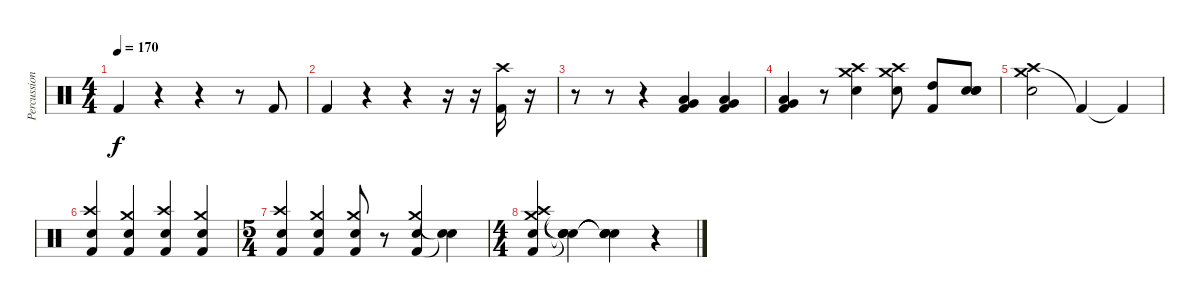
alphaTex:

\track ("Percussion" "Percussion") {instrument percussion}
\staff {score}
\articulation defaults
\ts (4 4)
\tempo 170
\clef neutral
\ks c "Kick (hit) 2".4{dy f}
r.4 r.4 r.8 "Kick (hit) 2".8 |
"Kick (hit) 2".4 r.4 r.4 r.16 r.16 ("Crash high (hit)" "Kick (hit) 2").16 r.16 |
r.8 r.8 r.4 ("Very Low Tom (hit)" "Kick (hit) 2" "Low Tom (hit)").4 ("Very Low Tom (hit)" "Kick (hit) 2" "Low Tom (hit)").4 |
("Very Low Tom (hit)" "Kick (hit) 2" "Low Tom (hit)").4 r.8 ("Crash medium (hit)" "Crash high (hit)" "Snare (hit) 2").4 ("Crash medium (hit)" "Snare (hit) 2" "Crash high (hit)").8 ("High Tom (hit)" "Kick (hit) 2").8 ("Snare (hit) 2" "Snare (hit) 2" "Snare (hit) 2").8 |
("Crash medium (hit)" "Crash high (hit)" "Snare (hit) 2").2 "Kick (hit) 2"{t}.4 "Kick (hit) 2"{t}.4 |
("Kick (hit) 2" "Crash high (hit)" "Snare (hit) 2").4 ("Kick (hit) 2" "Crash medium (hit)" "Snare (hit) 2").4 ("Crash high (hit)" "Kick (hit) 2" "Snare (hit) 2").4 ("Crash medium (hit)" "Kick (hit) 2" "Snare (hit) 2").4 |
\ts (5 4)
("Crash high (hit)" "Kick (hit) 2" "Snare (hit) 2").4 ("Crash medium (hit)" "Kick (hit) 2" "Snare (hit) 2").4 ("Crash medium (hit)" "Kick (hit) 2" "Snare (hit) 2").8 r.8 ("Crash medium (hit)" "Kick (hit) 2" "Snare (hit) 2").4 ("Snare (hit)"{t} "Snare (hit)"{t}).4 |
\ts (4 4)
("Crash medium (hit)" "Snare (hit) 2" "Kick (hit) 2" "Crash high (hit)").4 ("Snare (hit)"{t} "Snare (hit)"{t} "Snare (hit)"{t} "Snare (hit)"{t}).4 ("Snare (hit)"{t} "Snare (hit)"{t} "Snare (hit)"{t} "Snare (hit)"{t}).4 r.4
